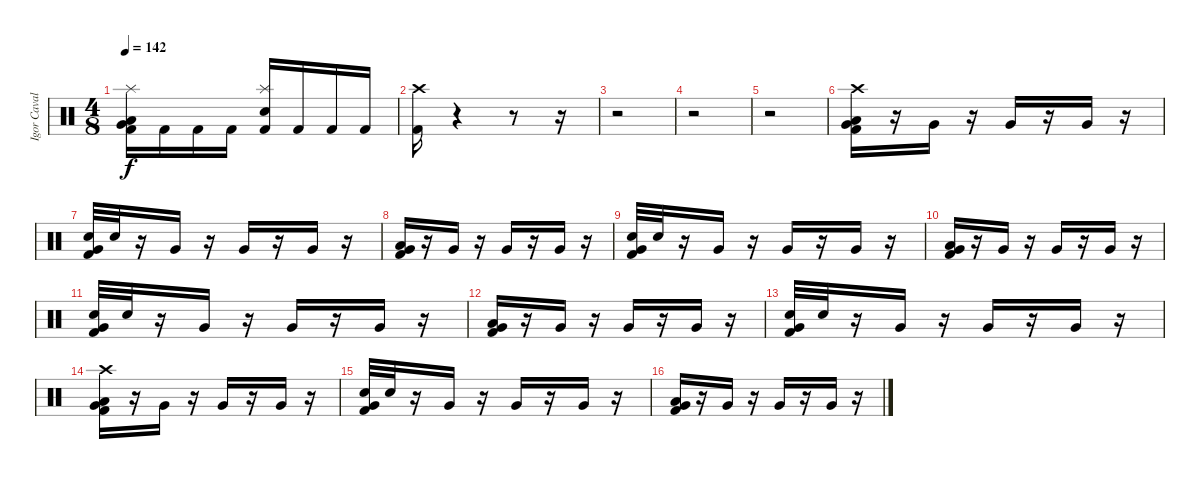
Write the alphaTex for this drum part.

\track ("Igor Cavalera" "Igor Caval") {instrument percussion}
\staff {score}
\articulation defaults
\ts (4 8)
\tempo 142
\clef neutral
\ks c
("Kick (hit) 2" "Low Floor Tom (hit)" "Very Low Tom (hit)" "Splash (hit)").16{dy f} "Kick (hit) 2".16 "Kick (hit) 2".16 "Kick (hit) 2".16 ("Kick (hit) 2" "Electric Snare (hit)" "Splash (hit)").16 "Kick (hit) 2".16 "Kick (hit) 2".16 "Kick (hit) 2".16 |
("Kick (hit) 2" "Crash high (hit)").16 r.4 r.8 r.16 |
r.2 |
r.2 |
r.2 |
("Very Low Tom (hit)" "Kick (hit) 2" "Crash high (hit)" "Low Floor Tom (hit)").16 r.16 "Very Low Tom (hit)".16 r.16 "Very Low Tom (hit)".16 r.16 "Very Low Tom (hit)".16 r.16 |
("Electric Snare (hit)" "Kick (hit) 2" "Very Low Tom (hit)").32 "Electric Snare (hit)".32 r.16 "Very Low Tom (hit)".16 r.16 "Very Low Tom (hit)".16 r.16 "Very Low Tom (hit)".16 r.16 |
("Low Floor Tom (hit)" "Kick (hit) 2" "Very Low Tom (hit)").16 r.16 "Very Low Tom (hit)".16 r.16 "Very Low Tom (hit)".16 r.16 "Very Low Tom (hit)".16 r.16 |
("Electric Snare (hit)" "Kick (hit) 2" "Very Low Tom (hit)").32 "Electric Snare (hit)".32 r.16 "Very Low Tom (hit)".16 r.16 "Very Low Tom (hit)".16 r.16 "Very Low Tom (hit)".16 r.16 |
("Very Low Tom (hit)" "Kick (hit) 2" "Low Floor Tom (hit)").16 r.16 "Very Low Tom (hit)".16 r.16 "Very Low Tom (hit)".16 r.16 "Very Low Tom (hit)".16 r.16 |
("Electric Snare (hit)" "Kick (hit) 2" "Very Low Tom (hit)").32 "Electric Snare (hit)".32 r.16 "Very Low Tom (hit)".16 r.16 "Very Low Tom (hit)".16 r.16 "Very Low Tom (hit)".16 r.16 |
("Low Floor Tom (hit)" "Kick (hit) 2" "Very Low Tom (hit)").16 r.16 "Very Low Tom (hit)".16 r.16 "Very Low Tom (hit)".16 r.16 "Very Low Tom (hit)".16 r.16 |
("Electric Snare (hit)" "Kick (hit) 2" "Very Low Tom (hit)").32 "Electric Snare (hit)".32 r.16 "Very Low Tom (hit)".16 r.16 "Very Low Tom (hit)".16 r.16 "Very Low Tom (hit)".16 r.16 |
("Very Low Tom (hit)" "Kick (hit) 2" "Crash high (hit)" "Low Floor Tom (hit)").16 r.16 "Very Low Tom (hit)".16 r.16 "Very Low Tom (hit)".16 r.16 "Very Low Tom (hit)".16 r.16 |
("Electric Snare (hit)" "Kick (hit) 2" "Very Low Tom (hit)").32 "Electric Snare (hit)".32 r.16 "Very Low Tom (hit)".16 r.16 "Very Low Tom (hit)".16 r.16 "Very Low Tom (hit)".16 r.16 |
("Low Floor Tom (hit)" "Kick (hit) 2" "Very Low Tom (hit)").16 r.16 "Very Low Tom (hit)".16 r.16 "Very Low Tom (hit)".16 r.16 "Very Low Tom (hit)".16 r.16
